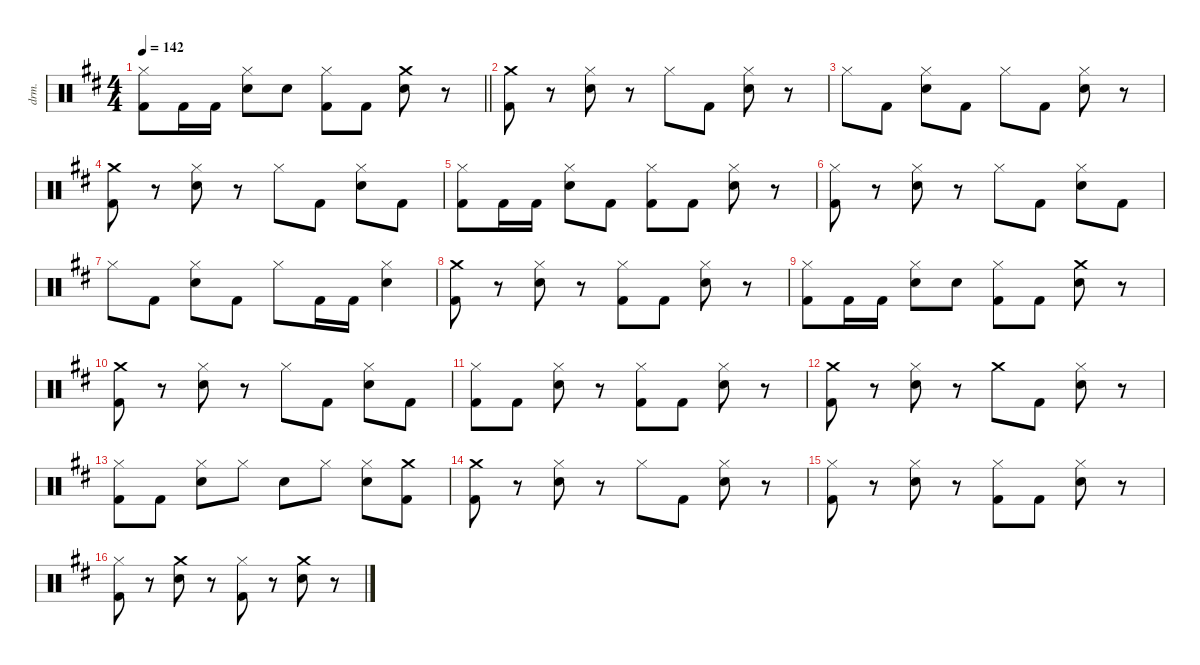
\defaultSystemsLayout 4
\hideDynamics
\bracketExtendMode nobrackets
\otherSystemsTrackNameOrientation horizontal
\track ("Lars - Drums" "drm.") {defaultSystemsLayout 4 instrument percussion}
\staff {score}
\articulation defaults
\ts (4 4)
\tempo 142
\clef neutral
\barLineRight lightlight
\ks bminor
("Hi-Hat (closed)"{acc forcenatural} "Kick (hit) 2"{acc forcenatural}).8{dy f beam Down} "Kick (hit) 2"{acc forcenatural}.16{beam Down} "Kick (hit) 2"{acc forcenatural}.16{beam Down} ("Hi-Hat (closed)"{acc forcenatural} "Snare (hit) 2"{acc forcenatural}).8{beam Down} "Snare (hit) 2"{acc forcenatural}.8{beam Down} ("Hi-Hat (closed)"{acc forcenatural} "Kick (hit) 2"{acc forcenatural}).8{beam Down} "Kick (hit) 2"{acc forcenatural}.8{beam Down} ("Crash medium (hit)"{acc forcenatural} "Snare (hit) 2"{acc forcenatural}).8{beam Down} r.8{beam Down} |
("Crash medium (hit)"{acc forcenatural} "Kick (hit) 2"{acc forcenatural}).8{beam Down} r.8{beam Down} ("Hi-Hat (closed)"{acc forcenatural} "Snare (hit) 2"{acc forcenatural}).8{beam Down} r.8{beam Down} "Hi-Hat (closed)"{acc forcenatural}.8{beam Down} "Kick (hit) 2"{acc forcenatural}.8{beam Down} ("Hi-Hat (closed)"{acc forcenatural} "Snare (hit) 2"{acc forcenatural}).8{beam Down} r.8{beam Down} |
"Hi-Hat (closed)"{acc forcenatural}.8{beam Down} "Kick (hit) 2"{acc forcenatural}.8{beam Down} ("Hi-Hat (closed)"{acc forcenatural} "Snare (hit) 2"{acc forcenatural}).8{beam Down} "Kick (hit) 2"{acc forcenatural}.8{beam Down} "Hi-Hat (closed)"{acc forcenatural}.8{beam Down} "Kick (hit) 2"{acc forcenatural}.8{beam Down} ("Hi-Hat (closed)"{acc forcenatural} "Snare (hit) 2"{acc forcenatural}).8{beam Down} r.8{beam Down} |
("Crash medium (hit)"{acc forcenatural} "Kick (hit) 2"{acc forcenatural}).8{beam Down} r.8{beam Down} ("Hi-Hat (closed)"{acc forcenatural} "Snare (hit) 2"{acc forcenatural}).8{beam Down} r.8{beam Down} "Hi-Hat (closed)"{acc forcenatural}.8{beam Down} "Kick (hit) 2"{acc forcenatural}.8{beam Down} ("Hi-Hat (closed)"{acc forcenatural} "Snare (hit) 2"{acc forcenatural}).8{beam Down} "Kick (hit) 2"{acc forcenatural}.8{beam Down} |
("Hi-Hat (closed)"{acc forcenatural} "Kick (hit) 2"{acc forcenatural}).8{beam Down} "Kick (hit) 2"{acc forcenatural}.16{beam Down} "Kick (hit) 2"{acc forcenatural}.16{beam Down} ("Hi-Hat (closed)"{acc forcenatural} "Snare (hit) 2"{acc forcenatural}).8{beam Down} "Kick (hit) 2"{acc forcenatural}.8{beam Down} ("Hi-Hat (closed)"{acc forcenatural} "Kick (hit) 2"{acc forcenatural}).8{beam Down} "Kick (hit) 2"{acc forcenatural}.8{beam Down} ("Hi-Hat (closed)"{acc forcenatural} "Snare (hit) 2"{acc forcenatural}).8{beam Down} r.8{beam Down} |
("Hi-Hat (closed)"{acc forcenatural} "Kick (hit) 2"{acc forcenatural}).8{beam Down} r.8{beam Down} ("Hi-Hat (closed)"{acc forcenatural} "Snare (hit) 2"{acc forcenatural}).8{beam Down} r.8{beam Down} "Hi-Hat (closed)"{acc forcenatural}.8{beam Down} "Kick (hit) 2"{acc forcenatural}.8{beam Down} ("Hi-Hat (closed)"{acc forcenatural} "Snare (hit) 2"{acc forcenatural}).8{beam Down} "Kick (hit) 2"{acc forcenatural}.8{beam Down} |
"Hi-Hat (closed)"{acc forcenatural}.8{beam Down} "Kick (hit) 2"{acc forcenatural}.8{beam Down} ("Hi-Hat (closed)"{acc forcenatural} "Snare (hit) 2"{acc forcenatural}).8{beam Down} "Kick (hit) 2"{acc forcenatural}.8{beam Down} "Hi-Hat (closed)"{acc forcenatural}.8{beam Down} "Kick (hit) 2"{acc forcenatural}.16{beam Down} "Kick (hit) 2"{acc forcenatural}.16{beam Down} ("Hi-Hat (closed)"{acc forcenatural} "Snare (hit) 2"{acc forcenatural}).4{beam Down} |
("Crash medium (hit)"{acc forcenatural} "Kick (hit) 2"{acc forcenatural}).8{beam Down} r.8{beam Down} ("Hi-Hat (closed)"{acc forcenatural} "Snare (hit) 2"{acc forcenatural}).8{beam Down} r.8{beam Down} ("Hi-Hat (closed)"{acc forcenatural} "Kick (hit) 2"{acc forcenatural}).8{beam Down} "Kick (hit) 2"{acc forcenatural}.8{beam Down} ("Hi-Hat (closed)"{acc forcenatural} "Snare (hit) 2"{acc forcenatural}).8{beam Down} r.8{beam Down} |
("Hi-Hat (closed)"{acc forcenatural} "Kick (hit) 2"{acc forcenatural}).8{beam Down} "Kick (hit) 2"{acc forcenatural}.16{beam Down} "Kick (hit) 2"{acc forcenatural}.16{beam Down} ("Hi-Hat (closed)"{acc forcenatural} "Snare (hit) 2"{acc forcenatural}).8{beam Down} "Snare (hit) 2"{acc forcenatural}.8{beam Down} ("Hi-Hat (closed)"{acc forcenatural} "Kick (hit) 2"{acc forcenatural}).8{beam Down} "Kick (hit) 2"{acc forcenatural}.8{beam Down} ("Crash medium (hit)"{acc forcenatural} "Snare (hit) 2"{acc forcenatural}).8{beam Down} r.8{beam Down} |
("Crash medium (hit)"{acc forcenatural} "Kick (hit) 2"{acc forcenatural}).8{beam Down} r.8{beam Down} ("Hi-Hat (closed)"{acc forcenatural} "Snare (hit) 2"{acc forcenatural}).8{beam Down} r.8{beam Down} "Hi-Hat (closed)"{acc forcenatural}.8{beam Down} "Kick (hit) 2"{acc forcenatural}.8{beam Down} ("Hi-Hat (closed)"{acc forcenatural} "Snare (hit) 2"{acc forcenatural}).8{beam Down} "Kick (hit) 2"{acc forcenatural}.8{beam Down} |
("Hi-Hat (closed)"{acc forcenatural} "Kick (hit) 2"{acc forcenatural}).8{beam Down} "Kick (hit) 2"{acc forcenatural}.8{beam Down} ("Hi-Hat (closed)"{acc forcenatural} "Snare (hit) 2"{acc forcenatural}).8{beam Down} r.8{beam Down} ("Hi-Hat (closed)"{acc forcenatural} "Kick (hit) 2"{acc forcenatural}).8{beam Down} "Kick (hit) 2"{acc forcenatural}.8{beam Down} ("Hi-Hat (closed)"{acc forcenatural} "Snare (hit) 2"{acc forcenatural}).8{beam Down} r.8{beam Down} |
("Crash medium (hit)"{acc forcenatural} "Kick (hit) 2"{acc forcenatural}).8{beam Down} r.8{beam Down} ("Hi-Hat (closed)"{acc forcenatural} "Snare (hit) 2"{acc forcenatural}).8{beam Down} r.8{beam Down} "Crash medium (hit)"{acc forcenatural}.8{beam Down} "Kick (hit) 2"{acc forcenatural}.8{beam Down} ("Hi-Hat (closed)"{acc forcenatural} "Snare (hit) 2"{acc forcenatural}).8{beam Down} r.8{beam Down} |
("Hi-Hat (closed)"{acc forcenatural} "Kick (hit) 2"{acc forcenatural}).8{beam Down} "Kick (hit) 2"{acc forcenatural}.8{beam Down} ("Hi-Hat (closed)"{acc forcenatural} "Snare (hit) 2"{acc forcenatural}).8{beam Down} "Hi-Hat (closed)"{acc forcenatural}.8{beam Down} "Snare (hit) 2"{acc forcenatural}.8{beam Down} "Hi-Hat (closed)"{acc forcenatural}.8{beam Down} ("Hi-Hat (closed)"{acc forcenatural} "Snare (hit) 2"{acc forcenatural}).8{beam Down} ("Crash medium (hit)"{acc forcenatural} "Kick (hit) 2"{acc forcenatural}).8{beam Down} |
("Crash medium (hit)"{acc forcenatural} "Kick (hit) 2"{acc forcenatural}).8{beam Down} r.8{beam Down} ("Snare (hit) 2"{acc forcenatural} "Hi-Hat (closed)"{acc forcenatural}).8{dy ff beam Down} r.8{beam Down} "Hi-Hat (closed)"{acc forcenatural}.8{dy f beam Down} "Kick (hit) 2"{acc forcenatural}.8{beam Down} ("Snare (hit) 2"{acc forcenatural} "Hi-Hat (closed)"{acc forcenatural}).8{dy ff beam Down} r.8{beam Down} |
("Hi-Hat (closed)"{acc forcenatural} "Kick (hit) 2"{acc forcenatural}).8{dy f beam Down} r.8{beam Down} ("Snare (hit) 2"{acc forcenatural} "Hi-Hat (closed)"{acc forcenatural}).8{dy ff beam Down} r.8{beam Down} ("Hi-Hat (closed)"{acc forcenatural} "Kick (hit) 2"{acc forcenatural}).8{dy f beam Down} "Kick (hit) 2"{acc forcenatural}.8{beam Down} ("Snare (hit) 2"{acc forcenatural} "Hi-Hat (closed)"{acc forcenatural}).8{dy ff beam Down} r.8{beam Down} |
("Hi-Hat (closed)"{acc forcenatural} "Kick (hit) 2"{acc forcenatural}).8{dy f beam Down} r.8{beam Down} ("Crash medium (hit)"{acc forcenatural} "Snare (hit) 2"{acc forcenatural}).8{beam Down} r.8{beam Down} ("Hi-Hat (closed)"{acc forcenatural} "Kick (hit) 2"{acc forcenatural}).8{beam Down} r.8{beam Down} ("Crash medium (hit)"{acc forcenatural} "Snare (hit) 2"{acc forcenatural}).8{beam Down} r.8{beam Down}
